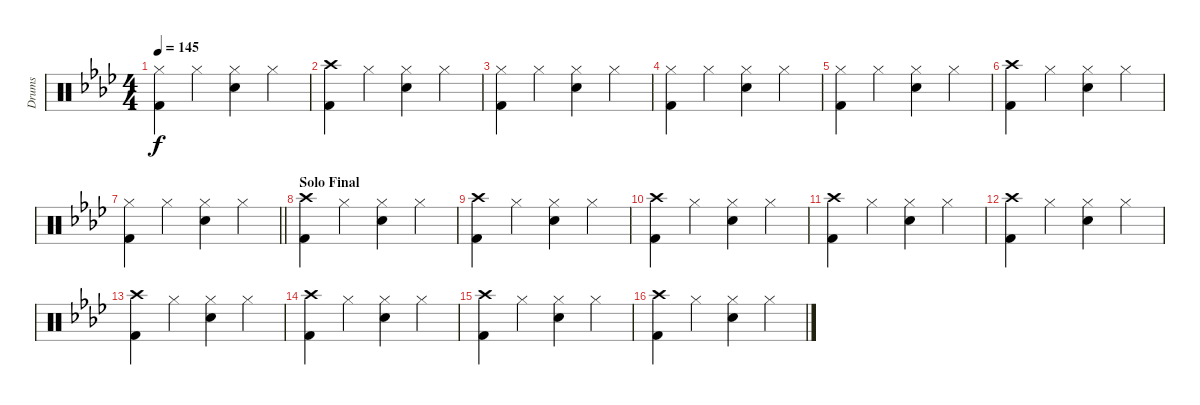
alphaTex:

\track ("Drums" "Drums") {instrument percussion}
\staff {score}
\articulation defaults
\ts (4 4)
\tempo 145
\clef neutral
\ks ab
("Hi-Hat (closed)" "Kick (hit) 2").4{dy f} "Hi-Hat (closed)".4 ("Hi-Hat (closed)" "Electric Snare (hit)").4 "Hi-Hat (closed)".4 |
("Crash high (hit)" "Kick (hit) 2").4 "Hi-Hat (closed)".4 ("Hi-Hat (closed)" "Electric Snare (hit)").4 "Hi-Hat (closed)".4 |
("Hi-Hat (closed)" "Kick (hit) 2").4 "Hi-Hat (closed)".4 ("Hi-Hat (closed)" "Electric Snare (hit)").4 "Hi-Hat (closed)".4 |
("Hi-Hat (closed)" "Kick (hit) 2").4 "Hi-Hat (closed)".4 ("Hi-Hat (closed)" "Electric Snare (hit)").4 "Hi-Hat (closed)".4 |
("Hi-Hat (closed)" "Kick (hit) 2").4 "Hi-Hat (closed)".4 ("Hi-Hat (closed)" "Electric Snare (hit)").4 "Hi-Hat (closed)".4 |
("Crash high (hit)" "Kick (hit) 2").4 "Hi-Hat (closed)".4 ("Hi-Hat (closed)" "Electric Snare (hit)").4 "Hi-Hat (closed)".4 |
\barLineRight lightlight
("Hi-Hat (closed)" "Kick (hit) 2").4 "Hi-Hat (closed)".4 ("Hi-Hat (closed)" "Electric Snare (hit)").4 "Hi-Hat (closed)".4 |
\section ("" "Solo Final")
("Crash high (hit)" "Kick (hit) 2").4 "Hi-Hat (closed)".4 ("Hi-Hat (closed)" "Electric Snare (hit)").4 "Hi-Hat (closed)".4 |
("Crash high (hit)" "Kick (hit) 2").4 "Hi-Hat (closed)".4 ("Hi-Hat (closed)" "Electric Snare (hit)").4 "Hi-Hat (closed)".4 |
("Crash high (hit)" "Kick (hit) 2").4 "Hi-Hat (closed)".4 ("Hi-Hat (closed)" "Electric Snare (hit)").4 "Hi-Hat (closed)".4 |
("Crash high (hit)" "Kick (hit) 2").4 "Hi-Hat (closed)".4 ("Hi-Hat (closed)" "Electric Snare (hit)").4 "Hi-Hat (closed)".4 |
("Crash high (hit)" "Kick (hit) 2").4 "Hi-Hat (closed)".4 ("Hi-Hat (closed)" "Electric Snare (hit)").4 "Hi-Hat (closed)".4 |
("Crash high (hit)" "Kick (hit) 2").4 "Hi-Hat (closed)".4 ("Hi-Hat (closed)" "Electric Snare (hit)").4 "Hi-Hat (closed)".4 |
("Crash high (hit)" "Kick (hit) 2").4 "Hi-Hat (closed)".4 ("Hi-Hat (closed)" "Electric Snare (hit)").4 "Hi-Hat (closed)".4 |
("Crash high (hit)" "Kick (hit) 2").4 "Hi-Hat (closed)".4 ("Hi-Hat (closed)" "Electric Snare (hit)").4 "Hi-Hat (closed)".4 |
("Crash high (hit)" "Kick (hit) 2").4 "Hi-Hat (closed)".4 ("Hi-Hat (closed)" "Electric Snare (hit)").4 "Hi-Hat (closed)".4
